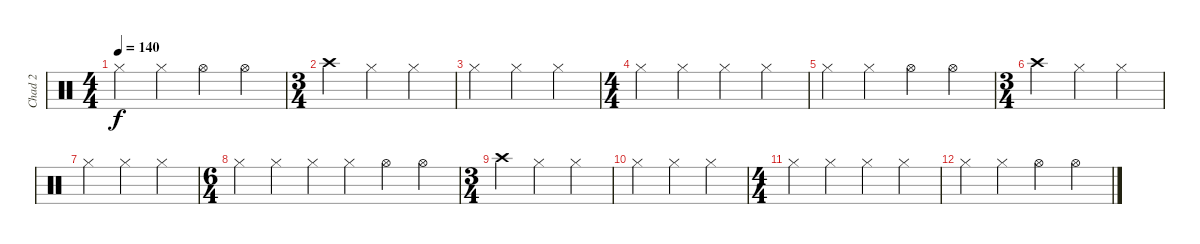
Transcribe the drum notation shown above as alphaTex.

\track ("Chad 2" "Chad 2") {instrument percussion}
\staff {score}
\articulation defaults
\ts (4 4)
\tempo 140
\clef neutral
\ks c "Hi-Hat (closed)".4{dy f} "Hi-Hat (closed)".4 "Hi-Hat (open)".4 "Hi-Hat (open)".4
|
\ts (3 4)
"Crash high (hit)".4 "Hi-Hat (closed)".4 "Hi-Hat (closed)".4 |
"Hi-Hat (closed)".4 "Hi-Hat (closed)".4 "Hi-Hat (closed)".4 |
\ts (4 4)
"Hi-Hat (closed)".4 "Hi-Hat (closed)".4 "Hi-Hat (closed)".4 "Hi-Hat (closed)".4 |
"Hi-Hat (closed)".4 "Hi-Hat (closed)".4 "Hi-Hat (open)".4 "Hi-Hat (open)".4 |
\ts (3 4)
"Crash high (hit)".4 "Hi-Hat (closed)".4 "Hi-Hat (closed)".4 |
"Hi-Hat (closed)".4 "Hi-Hat (closed)".4 "Hi-Hat (closed)".4 |
\ts (6 4)
"Hi-Hat (closed)".4 "Hi-Hat (closed)".4 "Hi-Hat (closed)".4 "Hi-Hat (closed)".4 "Hi-Hat (open)".4 "Hi-Hat (open)".4 |
\ts (3 4)
"Crash high (hit)".4 "Hi-Hat (closed)".4 "Hi-Hat (closed)".4 |
"Hi-Hat (closed)".4 "Hi-Hat (closed)".4 "Hi-Hat (closed)".4 |
\ts (4 4)
"Hi-Hat (closed)".4 "Hi-Hat (closed)".4 "Hi-Hat (closed)".4 "Hi-Hat (closed)".4 |
"Hi-Hat (closed)".4 "Hi-Hat (closed)".4 "Hi-Hat (open)".4 "Hi-Hat (open)".4
